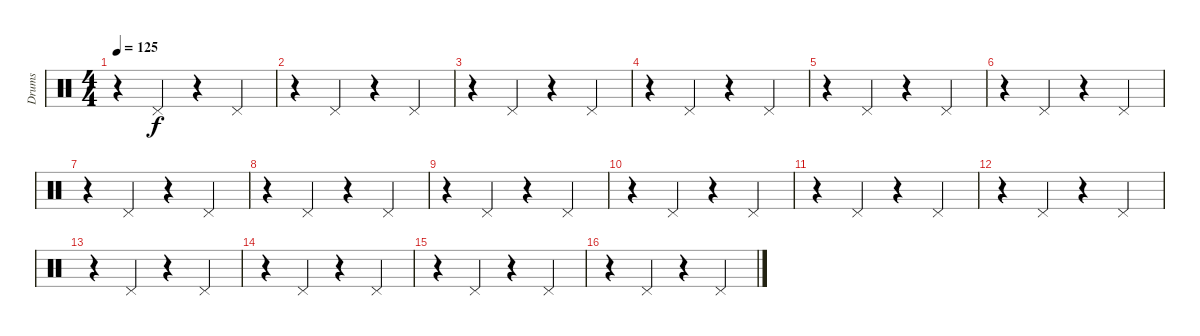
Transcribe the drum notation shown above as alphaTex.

\track ("Drums" "Drums") {instrument percussion}
\staff {score}
\articulation defaults
\ts (4 4)
\tempo 125
\clef neutral
\ks c
r.4{dy f} "Pedal Hi-Hat (hit)".4 r.4 "Pedal Hi-Hat (hit)".4 |
r.4 "Pedal Hi-Hat (hit)".4 r.4 "Pedal Hi-Hat (hit)".4 |
r.4 "Pedal Hi-Hat (hit)".4 r.4 "Pedal Hi-Hat (hit)".4 |
r.4 "Pedal Hi-Hat (hit)".4 r.4 "Pedal Hi-Hat (hit)".4 |
r.4 "Pedal Hi-Hat (hit)".4 r.4 "Pedal Hi-Hat (hit)".4 |
r.4 "Pedal Hi-Hat (hit)".4 r.4 "Pedal Hi-Hat (hit)".4 |
r.4 "Pedal Hi-Hat (hit)".4 r.4 "Pedal Hi-Hat (hit)".4 |
r.4 "Pedal Hi-Hat (hit)".4 r.4 "Pedal Hi-Hat (hit)".4 |
r.4 "Pedal Hi-Hat (hit)".4 r.4 "Pedal Hi-Hat (hit)".4 |
r.4 "Pedal Hi-Hat (hit)".4 r.4 "Pedal Hi-Hat (hit)".4 |
r.4 "Pedal Hi-Hat (hit)".4 r.4 "Pedal Hi-Hat (hit)".4 |
r.4 "Pedal Hi-Hat (hit)".4 r.4 "Pedal Hi-Hat (hit)".4 |
r.4 "Pedal Hi-Hat (hit)".4 r.4 "Pedal Hi-Hat (hit)".4 |
r.4 "Pedal Hi-Hat (hit)".4 r.4 "Pedal Hi-Hat (hit)".4 |
r.4 "Pedal Hi-Hat (hit)".4 r.4 "Pedal Hi-Hat (hit)".4 |
r.4 "Pedal Hi-Hat (hit)".4 r.4 "Pedal Hi-Hat (hit)".4
